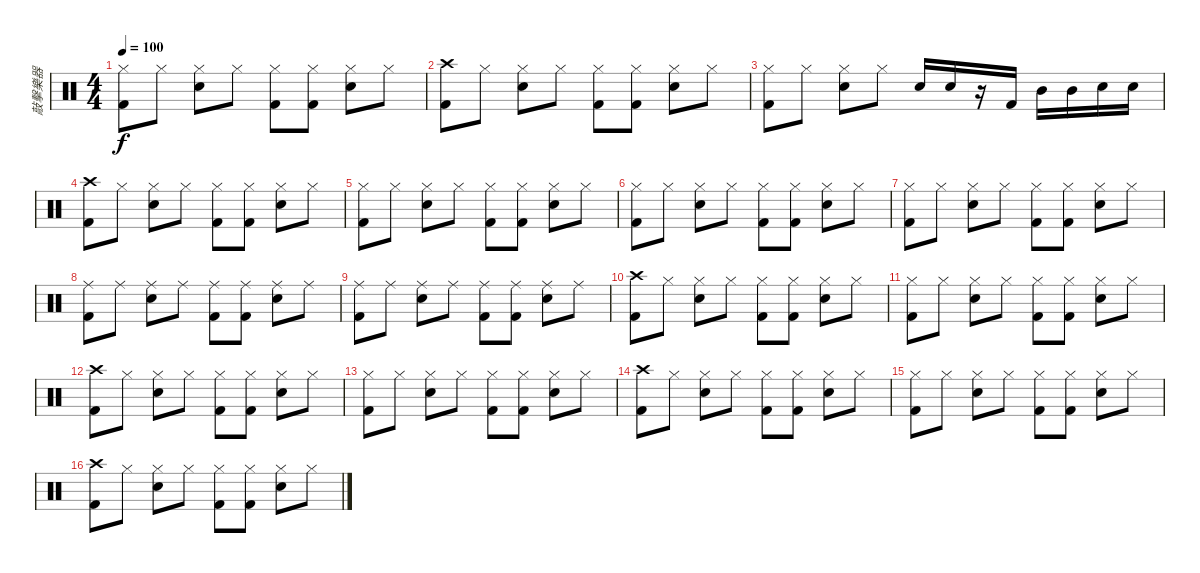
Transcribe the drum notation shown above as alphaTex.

\track ("敲擊樂器" "敲擊樂器") {instrument percussion}
\staff {score}
\articulation defaults
\ts (4 4)
\tempo 100
\clef neutral
\ks c
("Hi-Hat (closed)" "Kick (hit) 2").8{dy f} "Hi-Hat (closed)".8 ("Hi-Hat (closed)" "Snare (hit) 2").8 "Hi-Hat (closed)".8 ("Hi-Hat (closed)" "Kick (hit) 2").8 ("Hi-Hat (closed)" "Kick (hit) 2").8 ("Hi-Hat (closed)" "Snare (hit) 2").8 "Hi-Hat (closed)".8 |
("Crash high (hit)" "Kick (hit) 2").8 "Hi-Hat (closed)".8 ("Hi-Hat (closed)" "Snare (hit) 2").8 "Hi-Hat (closed)".8 ("Hi-Hat (closed)" "Kick (hit) 2").8 ("Hi-Hat (closed)" "Kick (hit) 2").8 ("Hi-Hat (closed)" "Snare (hit) 2").8 "Hi-Hat (closed)".8 |
("Hi-Hat (closed)" "Kick (hit) 2").8 "Hi-Hat (closed)".8 ("Hi-Hat (closed)" "Snare (hit) 2").8 "Hi-Hat (closed)".8 "Snare (hit) 2".16 "Snare (hit) 2".16 r.16 "Kick (hit) 2".16 "Mid Tom (hit)".16 "Mid Tom (hit)".16 "Snare (hit) 2".16 "Snare (hit) 2".16 |
("Crash high (hit)" "Kick (hit) 2").8 "Hi-Hat (closed)".8 ("Hi-Hat (closed)" "Snare (hit) 2").8 "Hi-Hat (closed)".8 ("Hi-Hat (closed)" "Kick (hit) 2").8 ("Hi-Hat (closed)" "Kick (hit) 2").8 ("Hi-Hat (closed)" "Snare (hit) 2").8 "Hi-Hat (closed)".8 |
("Hi-Hat (closed)" "Kick (hit) 2").8 "Hi-Hat (closed)".8 ("Hi-Hat (closed)" "Snare (hit) 2").8 "Hi-Hat (closed)".8 ("Hi-Hat (closed)" "Kick (hit) 2").8 ("Hi-Hat (closed)" "Kick (hit) 2").8 ("Hi-Hat (closed)" "Snare (hit) 2").8 "Hi-Hat (closed)".8 |
("Hi-Hat (closed)" "Kick (hit) 2").8 "Hi-Hat (closed)".8 ("Hi-Hat (closed)" "Snare (hit) 2").8 "Hi-Hat (closed)".8 ("Hi-Hat (closed)" "Kick (hit) 2").8 ("Hi-Hat (closed)" "Kick (hit) 2").8 ("Hi-Hat (closed)" "Snare (hit) 2").8 "Hi-Hat (closed)".8 |
("Hi-Hat (closed)" "Kick (hit) 2").8 "Hi-Hat (closed)".8 ("Hi-Hat (closed)" "Snare (hit) 2").8 "Hi-Hat (closed)".8 ("Hi-Hat (closed)" "Kick (hit) 2").8 ("Hi-Hat (closed)" "Kick (hit) 2").8 ("Hi-Hat (closed)" "Snare (hit) 2").8 "Hi-Hat (closed)".8 |
("Ride (middle)" "Kick (hit) 2").8 "Ride (middle)".8 ("Ride (middle)" "Snare (hit) 2").8 "Ride (middle)".8 ("Ride (middle)" "Kick (hit) 2").8 ("Ride (middle)" "Kick (hit) 2").8 ("Ride (middle)" "Snare (hit) 2").8 "Ride (middle)".8 |
("Ride (middle)" "Kick (hit) 2").8 "Ride (middle)".8 ("Ride (middle)" "Snare (hit) 2").8 "Ride (middle)".8 ("Ride (middle)" "Kick (hit) 2").8 ("Ride (middle)" "Kick (hit) 2").8 ("Ride (middle)" "Snare (hit) 2").8 "Ride (middle)".8 |
("Crash high (hit)" "Kick (hit) 2").8 "Hi-Hat (closed)".8 ("Hi-Hat (closed)" "Snare (hit) 2").8 "Hi-Hat (closed)".8 ("Hi-Hat (closed)" "Kick (hit) 2").8 ("Hi-Hat (closed)" "Kick (hit) 2").8 ("Hi-Hat (closed)" "Snare (hit) 2").8 "Hi-Hat (closed)".8 |
("Hi-Hat (closed)" "Kick (hit) 2").8 "Hi-Hat (closed)".8 ("Hi-Hat (closed)" "Snare (hit) 2").8 "Hi-Hat (closed)".8 ("Hi-Hat (closed)" "Kick (hit) 2").8 ("Hi-Hat (closed)" "Kick (hit) 2").8 ("Hi-Hat (closed)" "Snare (hit) 2").8 "Hi-Hat (closed)".8 |
("Crash high (hit)" "Kick (hit) 2").8 "Hi-Hat (closed)".8 ("Hi-Hat (closed)" "Snare (hit) 2").8 "Hi-Hat (closed)".8 ("Hi-Hat (closed)" "Kick (hit) 2").8 ("Hi-Hat (closed)" "Kick (hit) 2").8 ("Hi-Hat (closed)" "Snare (hit) 2").8 "Hi-Hat (closed)".8 |
("Hi-Hat (closed)" "Kick (hit) 2").8 "Hi-Hat (closed)".8 ("Hi-Hat (closed)" "Snare (hit) 2").8 "Hi-Hat (closed)".8 ("Hi-Hat (closed)" "Kick (hit) 2").8 ("Hi-Hat (closed)" "Kick (hit) 2").8 ("Hi-Hat (closed)" "Snare (hit) 2").8 "Hi-Hat (closed)".8 |
("Crash high (hit)" "Kick (hit) 2").8 "Hi-Hat (closed)".8 ("Hi-Hat (closed)" "Snare (hit) 2").8 "Hi-Hat (closed)".8 ("Hi-Hat (closed)" "Kick (hit) 2").8 ("Hi-Hat (closed)" "Kick (hit) 2").8 ("Hi-Hat (closed)" "Snare (hit) 2").8 "Hi-Hat (closed)".8 |
("Hi-Hat (closed)" "Kick (hit) 2").8 "Hi-Hat (closed)".8 ("Hi-Hat (closed)" "Snare (hit) 2").8 "Hi-Hat (closed)".8 ("Hi-Hat (closed)" "Kick (hit) 2").8 ("Hi-Hat (closed)" "Kick (hit) 2").8 ("Hi-Hat (closed)" "Snare (hit) 2").8 "Hi-Hat (closed)".8 |
("Crash high (hit)" "Kick (hit) 2").8 "Hi-Hat (closed)".8 ("Hi-Hat (closed)" "Snare (hit) 2").8 "Hi-Hat (closed)".8 ("Hi-Hat (closed)" "Kick (hit) 2").8 ("Hi-Hat (closed)" "Kick (hit) 2").8 ("Hi-Hat (closed)" "Snare (hit) 2").8 "Hi-Hat (closed)".8
